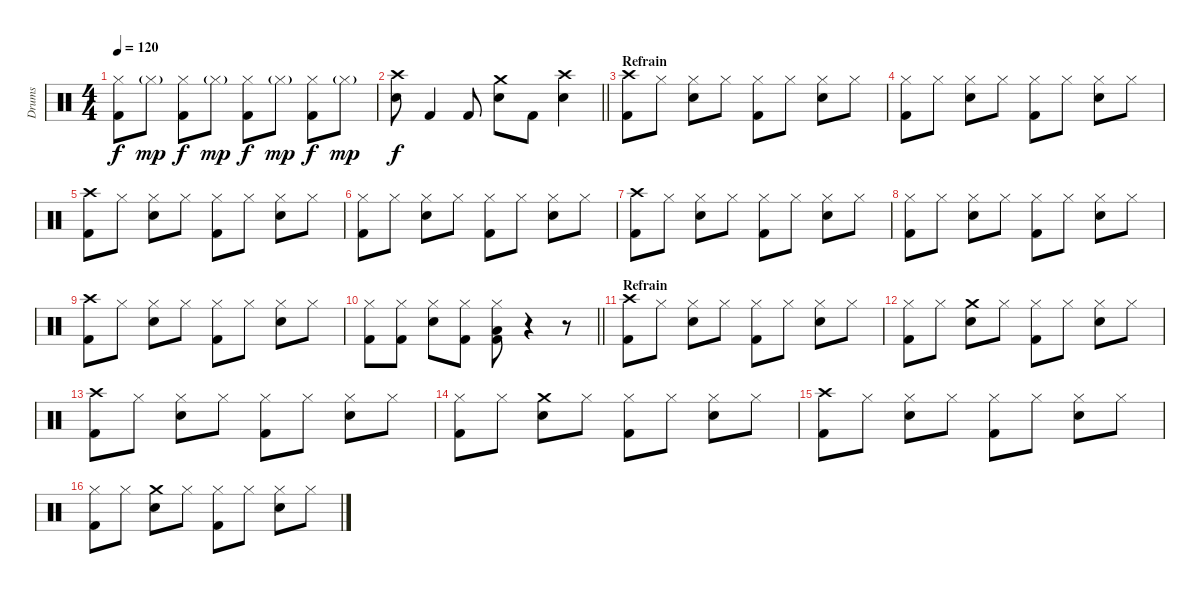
\track ("Drums" "Drums") {instrument percussion}
\staff {score}
\articulation defaults
\ts (4 4)
\tempo 120
\clef neutral
\ks c
("Hi-Hat (closed)" "Kick (hit) 2").8{dy f} "Hi-Hat (closed)"{g}.8{dy mp} ("Hi-Hat (closed)" "Kick (hit) 2").8{dy f} "Hi-Hat (closed)"{g}.8{dy mp} ("Hi-Hat (closed)" "Kick (hit) 2").8{dy f} "Hi-Hat (closed)"{g}.8{dy mp} ("Hi-Hat (closed)" "Kick (hit) 2").8{dy f} "Hi-Hat (closed)"{g}.8{dy mp} |
\barLineRight lightlight
("Crash high (hit)" "Snare (hit) 2").8{dy f} "Kick (hit) 2".4 "Kick (hit) 2".8 ("Crash medium (hit)" "Snare (hit) 2").8 "Kick (hit) 2".8 ("Crash high (hit)" "Snare (hit) 2").4 |
\section ("" "Refrain")
("Crash high (hit)" "Kick (hit) 2").8 "Hi-Hat (closed)".8 ("Hi-Hat (closed)" "Snare (hit) 2").8 "Hi-Hat (closed)".8 ("Hi-Hat (closed)" "Kick (hit) 2").8 "Hi-Hat (closed)".8 ("Hi-Hat (closed)" "Snare (hit) 2").8 "Hi-Hat (closed)".8 |
("Hi-Hat (closed)" "Kick (hit) 2").8 "Hi-Hat (closed)".8 ("Hi-Hat (closed)" "Snare (hit) 2").8 "Hi-Hat (closed)".8 ("Hi-Hat (closed)" "Kick (hit) 2").8 "Hi-Hat (closed)".8 ("Hi-Hat (closed)" "Snare (hit) 2").8 "Hi-Hat (closed)".8 |
("Crash high (hit)" "Kick (hit) 2").8 "Hi-Hat (closed)".8 ("Hi-Hat (closed)" "Snare (hit) 2").8 "Hi-Hat (closed)".8 ("Hi-Hat (closed)" "Kick (hit) 2").8 "Hi-Hat (closed)".8 ("Hi-Hat (closed)" "Snare (hit) 2").8 "Hi-Hat (closed)".8 |
("Hi-Hat (closed)" "Kick (hit) 2").8 "Hi-Hat (closed)".8 ("Hi-Hat (closed)" "Snare (hit) 2").8 "Hi-Hat (closed)".8 ("Hi-Hat (closed)" "Kick (hit) 2").8 "Hi-Hat (closed)".8 ("Hi-Hat (closed)" "Snare (hit) 2").8 "Hi-Hat (closed)".8 |
("Crash high (hit)" "Kick (hit) 2").8 "Hi-Hat (closed)".8 ("Hi-Hat (closed)" "Snare (hit) 2").8 "Hi-Hat (closed)".8 ("Hi-Hat (closed)" "Kick (hit) 2").8 "Hi-Hat (closed)".8 ("Hi-Hat (closed)" "Snare (hit) 2").8 "Hi-Hat (closed)".8 |
("Hi-Hat (closed)" "Kick (hit) 2").8 "Hi-Hat (closed)".8 ("Hi-Hat (closed)" "Snare (hit) 2").8 "Hi-Hat (closed)".8 ("Hi-Hat (closed)" "Kick (hit) 2").8 "Hi-Hat (closed)".8 ("Hi-Hat (closed)" "Snare (hit) 2").8 "Hi-Hat (closed)".8 |
("Crash high (hit)" "Kick (hit) 2").8 "Hi-Hat (closed)".8 ("Hi-Hat (closed)" "Snare (hit) 2").8 "Hi-Hat (closed)".8 ("Hi-Hat (closed)" "Kick (hit) 2").8 "Hi-Hat (closed)".8 ("Hi-Hat (closed)" "Snare (hit) 2").8 "Hi-Hat (closed)".8 |
\barLineRight lightlight
("Hi-Hat (closed)" "Kick (hit) 2").8 ("Hi-Hat (closed)" "Kick (hit) 2").8 ("Hi-Hat (closed)" "Snare (hit) 2").8 ("Hi-Hat (closed)" "Kick (hit) 2").8 ("Hi-Hat (closed)" "Low Tom (hit)" "Kick (hit) 2").8 r.4 r.8 |
\section ("" "Refrain")
("Crash high (hit)" "Kick (hit) 2").8 "Hi-Hat (closed)".8 ("Hi-Hat (closed)" "Snare (hit) 2").8 "Hi-Hat (closed)".8 ("Hi-Hat (closed)" "Kick (hit) 2").8 "Hi-Hat (closed)".8 ("Hi-Hat (closed)" "Snare (hit) 2").8 "Hi-Hat (closed)".8 |
("Hi-Hat (closed)" "Kick (hit) 2").8 "Hi-Hat (closed)".8 ("Crash medium (hit)" "Snare (hit) 2").8 "Hi-Hat (closed)".8 ("Hi-Hat (closed)" "Kick (hit) 2").8 "Hi-Hat (closed)".8 ("Hi-Hat (closed)" "Snare (hit) 2").8 "Hi-Hat (closed)".8 |
("Crash high (hit)" "Kick (hit) 2").8 "Hi-Hat (closed)".8 ("Hi-Hat (closed)" "Snare (hit) 2").8 "Hi-Hat (closed)".8 ("Hi-Hat (closed)" "Kick (hit) 2").8 "Hi-Hat (closed)".8 ("Hi-Hat (closed)" "Snare (hit) 2").8 "Hi-Hat (closed)".8 |
("Hi-Hat (closed)" "Kick (hit) 2").8 "Hi-Hat (closed)".8 ("Crash medium (hit)" "Snare (hit) 2").8 "Hi-Hat (closed)".8 ("Hi-Hat (closed)" "Kick (hit) 2").8 "Hi-Hat (closed)".8 ("Hi-Hat (closed)" "Snare (hit) 2").8 "Hi-Hat (closed)".8 |
("Crash high (hit)" "Kick (hit) 2").8 "Hi-Hat (closed)".8 ("Hi-Hat (closed)" "Snare (hit) 2").8 "Hi-Hat (closed)".8 ("Hi-Hat (closed)" "Kick (hit) 2").8 "Hi-Hat (closed)".8 ("Hi-Hat (closed)" "Snare (hit) 2").8 "Hi-Hat (closed)".8 |
("Hi-Hat (closed)" "Kick (hit) 2").8 "Hi-Hat (closed)".8 ("Crash medium (hit)" "Snare (hit) 2").8 "Hi-Hat (closed)".8 ("Hi-Hat (closed)" "Kick (hit) 2").8 "Hi-Hat (closed)".8 ("Hi-Hat (closed)" "Snare (hit) 2").8 "Hi-Hat (closed)".8
